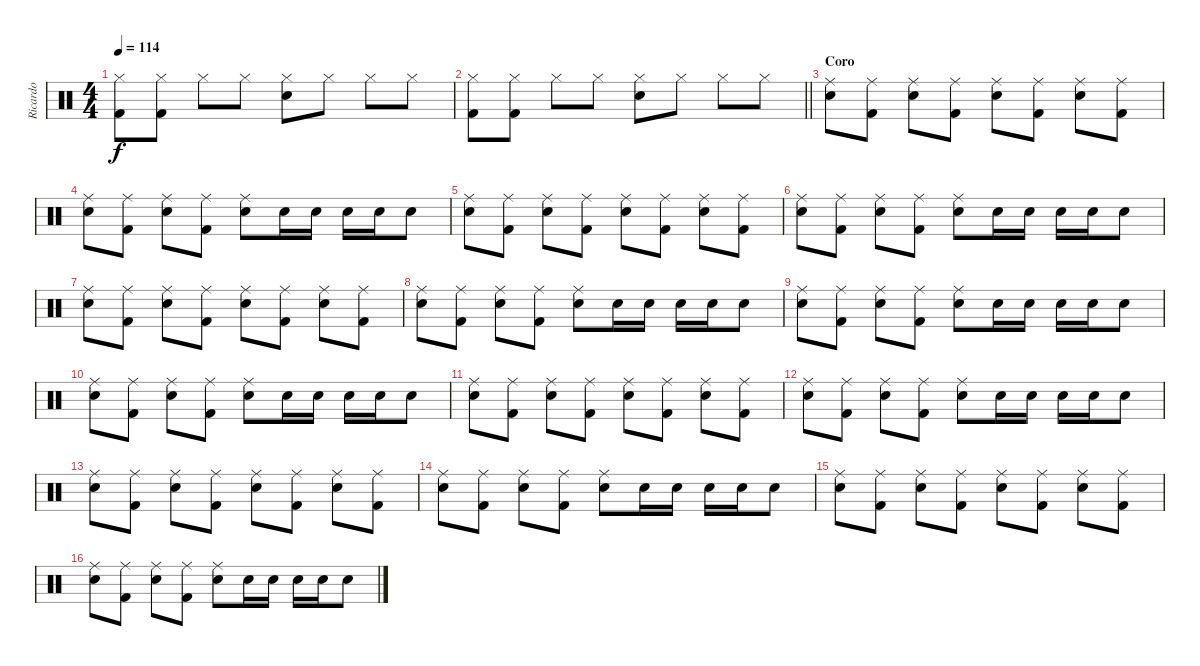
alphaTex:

\track ("Ricardo" "Ricardo") {instrument percussion}
\staff {score}
\articulation defaults
\ts (4 4)
\tempo 114
\clef neutral
\ks c
("Hi-Hat (closed)" "Kick (hit) 2").8{dy f} ("Hi-Hat (closed)" "Kick (hit) 2").8 "Hi-Hat (closed)".8 "Hi-Hat (closed)".8 ("Hi-Hat (closed)" "Snare (hit) 2").8 "Hi-Hat (closed)".8 "Hi-Hat (closed)".8 "Hi-Hat (closed)".8 |
\barLineRight lightlight
("Hi-Hat (closed)" "Kick (hit) 2").8 ("Hi-Hat (closed)" "Kick (hit) 2").8 "Hi-Hat (closed)".8 "Hi-Hat (closed)".8 ("Hi-Hat (closed)" "Snare (hit) 2").8 "Hi-Hat (closed)".8 "Hi-Hat (closed)".8 "Hi-Hat (closed)".8 |
\section ("" "Coro")
("Ride (middle)" "Snare (hit) 2").8 ("Ride (middle)" "Kick (hit) 2").8 ("Ride (middle)" "Snare (hit) 2").8 ("Ride (middle)" "Kick (hit) 2").8 ("Ride (middle)" "Snare (hit) 2").8 ("Ride (middle)" "Kick (hit) 2").8 ("Ride (middle)" "Snare (hit) 2").8 ("Ride (middle)" "Kick (hit) 2").8 |
("Ride (middle)" "Snare (hit) 2").8 ("Ride (middle)" "Kick (hit) 2").8 ("Ride (middle)" "Snare (hit) 2").8 ("Ride (middle)" "Kick (hit) 2").8 ("Ride (middle)" "Snare (hit) 2").8 "Snare (hit) 2".16 "Snare (hit) 2".16 "Snare (hit) 2".16 "Snare (hit) 2".16 "Snare (hit) 2".8 |
("Ride (middle)" "Snare (hit) 2").8 ("Ride (middle)" "Kick (hit) 2").8 ("Ride (middle)" "Snare (hit) 2").8 ("Ride (middle)" "Kick (hit) 2").8 ("Ride (middle)" "Snare (hit) 2").8 ("Ride (middle)" "Kick (hit) 2").8 ("Ride (middle)" "Snare (hit) 2").8 ("Ride (middle)" "Kick (hit) 2").8 |
("Ride (middle)" "Snare (hit) 2").8 ("Ride (middle)" "Kick (hit) 2").8 ("Ride (middle)" "Snare (hit) 2").8 ("Ride (middle)" "Kick (hit) 2").8 ("Ride (middle)" "Snare (hit) 2").8 "Snare (hit) 2".16 "Snare (hit) 2".16 "Snare (hit) 2".16 "Snare (hit) 2".16 "Snare (hit) 2".8 |
("Ride (middle)" "Snare (hit) 2").8 ("Ride (middle)" "Kick (hit) 2").8 ("Ride (middle)" "Snare (hit) 2").8 ("Ride (middle)" "Kick (hit) 2").8 ("Ride (middle)" "Snare (hit) 2").8 ("Ride (middle)" "Kick (hit) 2").8 ("Ride (middle)" "Snare (hit) 2").8 ("Ride (middle)" "Kick (hit) 2").8 |
("Ride (middle)" "Snare (hit) 2").8 ("Ride (middle)" "Kick (hit) 2").8 ("Ride (middle)" "Snare (hit) 2").8 ("Ride (middle)" "Kick (hit) 2").8 ("Ride (middle)" "Snare (hit) 2").8 "Snare (hit) 2".16 "Snare (hit) 2".16 "Snare (hit) 2".16 "Snare (hit) 2".16 "Snare (hit) 2".8 |
("Ride (middle)" "Snare (hit) 2").8 ("Ride (middle)" "Kick (hit) 2").8 ("Ride (middle)" "Snare (hit) 2").8 ("Ride (middle)" "Kick (hit) 2").8 ("Ride (middle)" "Snare (hit) 2").8 "Snare (hit) 2".16 "Snare (hit) 2".16 "Snare (hit) 2".16 "Snare (hit) 2".16 "Snare (hit) 2".8 |
("Ride (middle)" "Snare (hit) 2").8 ("Ride (middle)" "Kick (hit) 2").8 ("Ride (middle)" "Snare (hit) 2").8 ("Ride (middle)" "Kick (hit) 2").8 ("Ride (middle)" "Snare (hit) 2").8 "Snare (hit) 2".16 "Snare (hit) 2".16 "Snare (hit) 2".16 "Snare (hit) 2".16 "Snare (hit) 2".8 |
("Ride (middle)" "Snare (hit) 2").8 ("Ride (middle)" "Kick (hit) 2").8 ("Ride (middle)" "Snare (hit) 2").8 ("Ride (middle)" "Kick (hit) 2").8 ("Ride (middle)" "Snare (hit) 2").8 ("Ride (middle)" "Kick (hit) 2").8 ("Ride (middle)" "Snare (hit) 2").8 ("Ride (middle)" "Kick (hit) 2").8 |
("Ride (middle)" "Snare (hit) 2").8 ("Ride (middle)" "Kick (hit) 2").8 ("Ride (middle)" "Snare (hit) 2").8 ("Ride (middle)" "Kick (hit) 2").8 ("Ride (middle)" "Snare (hit) 2").8 "Snare (hit) 2".16 "Snare (hit) 2".16 "Snare (hit) 2".16 "Snare (hit) 2".16 "Snare (hit) 2".8 |
("Ride (middle)" "Snare (hit) 2").8 ("Ride (middle)" "Kick (hit) 2").8 ("Ride (middle)" "Snare (hit) 2").8 ("Ride (middle)" "Kick (hit) 2").8 ("Ride (middle)" "Snare (hit) 2").8 ("Ride (middle)" "Kick (hit) 2").8 ("Ride (middle)" "Snare (hit) 2").8 ("Ride (middle)" "Kick (hit) 2").8 |
("Ride (middle)" "Snare (hit) 2").8 ("Ride (middle)" "Kick (hit) 2").8 ("Ride (middle)" "Snare (hit) 2").8 ("Ride (middle)" "Kick (hit) 2").8 ("Ride (middle)" "Snare (hit) 2").8 "Snare (hit) 2".16 "Snare (hit) 2".16 "Snare (hit) 2".16 "Snare (hit) 2".16 "Snare (hit) 2".8 |
("Ride (middle)" "Snare (hit) 2").8 ("Ride (middle)" "Kick (hit) 2").8 ("Ride (middle)" "Snare (hit) 2").8 ("Ride (middle)" "Kick (hit) 2").8 ("Ride (middle)" "Snare (hit) 2").8 ("Ride (middle)" "Kick (hit) 2").8 ("Ride (middle)" "Snare (hit) 2").8 ("Ride (middle)" "Kick (hit) 2").8 |
("Ride (middle)" "Snare (hit) 2").8 ("Ride (middle)" "Kick (hit) 2").8 ("Ride (middle)" "Snare (hit) 2").8 ("Ride (middle)" "Kick (hit) 2").8 ("Ride (middle)" "Snare (hit) 2").8 "Snare (hit) 2".16 "Snare (hit) 2".16 "Snare (hit) 2".16 "Snare (hit) 2".16 "Snare (hit) 2".8
